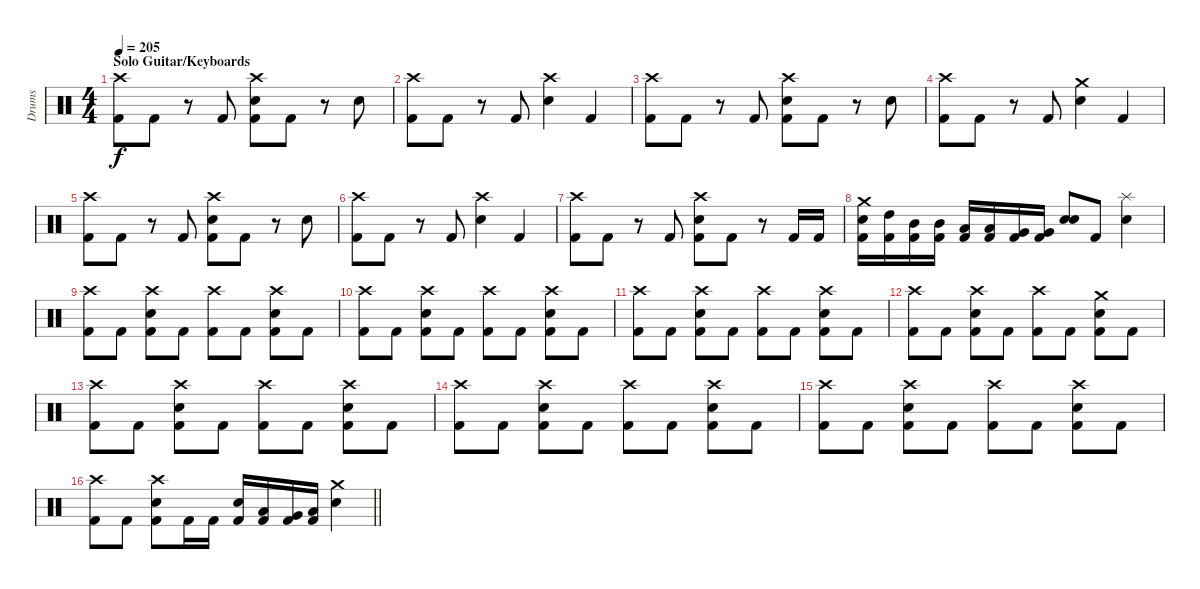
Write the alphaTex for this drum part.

\track ("Drums" "Drums") {instrument percussion}
\staff {score}
\articulation defaults
\ts (4 4)
\section ("" "Solo Guitar/Keyboards")
\tempo 205
\clef neutral
\ks c
("Crash high (hit)" "Kick (hit) 2").8{dy f} "Kick (hit) 2".8 r.8 "Kick (hit) 2".8 ("Crash high (hit)" "Snare (hit) 2" "Kick (hit) 2").8 "Kick (hit) 2".8 r.8 "Snare (hit) 2".8 |
("Crash high (hit)" "Kick (hit) 2").8 "Kick (hit) 2".8 r.8 "Kick (hit) 2".8 ("Crash high (hit)" "Snare (hit) 2").4 "Kick (hit) 2".4 |
("Crash high (hit)" "Kick (hit) 2").8 "Kick (hit) 2".8 r.8 "Kick (hit) 2".8 ("Crash high (hit)" "Snare (hit) 2" "Kick (hit) 2").8 "Kick (hit) 2".8 r.8 "Snare (hit) 2".8 |
("Crash high (hit)" "Kick (hit) 2").8 "Kick (hit) 2".8 r.8 "Kick (hit) 2".8 ("Crash medium (hit)" "Snare (hit) 2").4 "Kick (hit) 2".4 |
("Crash high (hit)" "Kick (hit) 2").8 "Kick (hit) 2".8 r.8 "Kick (hit) 2".8 ("Crash high (hit)" "Snare (hit) 2" "Kick (hit) 2").8 "Kick (hit) 2".8 r.8 "Snare (hit) 2".8 |
("Crash high (hit)" "Kick (hit) 2").8 "Kick (hit) 2".8 r.8 "Kick (hit) 2".8 ("Crash high (hit)" "Snare (hit) 2").4 "Kick (hit) 2".4 |
("Crash high (hit)" "Kick (hit) 2").8 "Kick (hit) 2".8 r.8 "Kick (hit) 2".8 ("Crash high (hit)" "Snare (hit) 2" "Kick (hit) 2").8 "Kick (hit) 2".8 r.8 "Kick (hit) 2".16 "Kick (hit) 2".16 |
("Crash medium (hit)" "Snare (hit) 2" "Kick (hit) 2").16 ("High Tom (hit)" "Kick (hit) 2").16 ("Mid Tom (hit)" "Kick (hit) 2").16 ("Mid Tom (hit)" "Kick (hit) 2").16 ("Low Tom (hit)" "Kick (hit) 2").16 ("Low Tom (hit)" "Kick (hit) 2").16 ("Very Low Tom (hit)" "Kick (hit) 2").16 ("Very Low Tom (hit)" "Kick (hit) 2").16 ("Snare (hit) 2" "Snare (hit) 2").8 "Kick (hit) 2".8 ("Splash (hit)" "Snare (hit) 2").4 |
("Crash high (hit)" "Kick (hit) 2").8 "Kick (hit) 2".8 ("Crash high (hit)" "Snare (hit) 2" "Kick (hit) 2").8 "Kick (hit) 2".8 ("Crash high (hit)" "Kick (hit) 2").8 "Kick (hit) 2".8 ("Crash high (hit)" "Snare (hit) 2" "Kick (hit) 2").8 "Kick (hit) 2".8 |
("Crash high (hit)" "Kick (hit) 2").8 "Kick (hit) 2".8 ("Crash high (hit)" "Snare (hit) 2" "Kick (hit) 2").8 "Kick (hit) 2".8 ("Crash high (hit)" "Kick (hit) 2").8 "Kick (hit) 2".8 ("Crash high (hit)" "Snare (hit) 2" "Kick (hit) 2").8 "Kick (hit) 2".8 |
("Crash high (hit)" "Kick (hit) 2").8 "Kick (hit) 2".8 ("Crash high (hit)" "Snare (hit) 2" "Kick (hit) 2").8 "Kick (hit) 2".8 ("Crash high (hit)" "Kick (hit) 2").8 "Kick (hit) 2".8 ("Crash high (hit)" "Snare (hit) 2" "Kick (hit) 2").8 "Kick (hit) 2".8 |
("Crash high (hit)" "Kick (hit) 2").8 "Kick (hit) 2".8 ("Crash high (hit)" "Snare (hit) 2" "Kick (hit) 2").8 "Kick (hit) 2".8 ("Crash high (hit)" "Kick (hit) 2").8 "Kick (hit) 2".8 ("Crash medium (hit)" "Snare (hit) 2" "Kick (hit) 2").8 "Kick (hit) 2".8 |
("Crash high (hit)" "Kick (hit) 2").8 "Kick (hit) 2".8 ("Crash high (hit)" "Snare (hit) 2" "Kick (hit) 2").8 "Kick (hit) 2".8 ("Crash high (hit)" "Kick (hit) 2").8 "Kick (hit) 2".8 ("Crash high (hit)" "Snare (hit) 2" "Kick (hit) 2").8 "Kick (hit) 2".8 |
("Crash high (hit)" "Kick (hit) 2").8 "Kick (hit) 2".8 ("Crash high (hit)" "Snare (hit) 2" "Kick (hit) 2").8 "Kick (hit) 2".8 ("Crash high (hit)" "Kick (hit) 2").8 "Kick (hit) 2".8 ("Crash high (hit)" "Snare (hit) 2" "Kick (hit) 2").8 "Kick (hit) 2".8 |
("Crash high (hit)" "Kick (hit) 2").8 "Kick (hit) 2".8 ("Crash high (hit)" "Snare (hit) 2" "Kick (hit) 2").8 "Kick (hit) 2".8 ("Crash high (hit)" "Kick (hit) 2").8 "Kick (hit) 2".8 ("Crash high (hit)" "Snare (hit) 2" "Kick (hit) 2").8 "Kick (hit) 2".8 |
\barLineRight lightlight
("Crash high (hit)" "Kick (hit) 2").8 "Kick (hit) 2".8 ("Crash high (hit)" "Snare (hit) 2" "Kick (hit) 2").8 "Kick (hit) 2".16 "Kick (hit) 2".16 ("Snare (hit) 2" "Kick (hit) 2").16 ("Low Tom (hit)" "Kick (hit) 2").16 ("Very Low Tom (hit)" "Kick (hit) 2").16 ("Low Floor Tom (hit)" "Kick (hit) 2").16 ("Crash medium (hit)" "Snare (hit) 2").4
